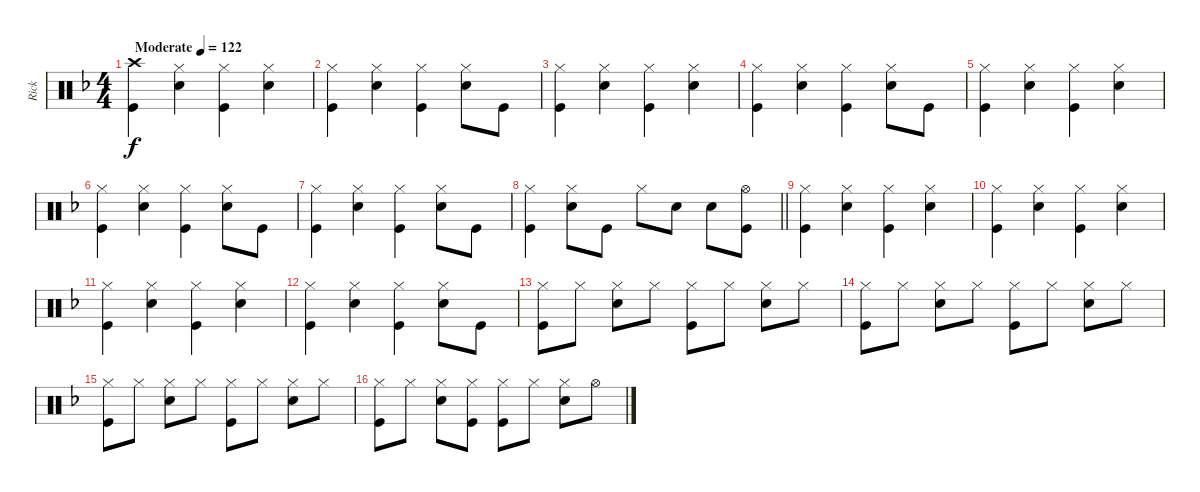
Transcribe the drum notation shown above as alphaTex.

\track ("Rick" "Rick") {instrument percussion}
\staff {score}
\articulation defaults
\ts (4 4)
\tempo (122 "Moderate")
\clef neutral
\ks f
("Crash high (hit)" "Kick (hit)").4{dy f} ("Hi-Hat (closed)" "Snare (hit) 2").4 ("Hi-Hat (closed)" "Kick (hit)").4 ("Hi-Hat (closed)" "Snare (hit) 2").4 |
("Hi-Hat (closed)" "Kick (hit)").4 ("Hi-Hat (closed)" "Snare (hit) 2").4 ("Hi-Hat (closed)" "Kick (hit)").4 ("Hi-Hat (closed)" "Snare (hit) 2").8 "Kick (hit)".8 |
("Hi-Hat (closed)" "Kick (hit)").4 ("Hi-Hat (closed)" "Snare (hit) 2").4 ("Hi-Hat (closed)" "Kick (hit)").4 ("Hi-Hat (closed)" "Snare (hit) 2").4 |
("Hi-Hat (closed)" "Kick (hit)").4 ("Hi-Hat (closed)" "Snare (hit) 2").4 ("Hi-Hat (closed)" "Kick (hit)").4 ("Hi-Hat (closed)" "Snare (hit) 2").8 "Kick (hit)".8 |
("Hi-Hat (closed)" "Kick (hit)").4 ("Hi-Hat (closed)" "Snare (hit) 2").4 ("Hi-Hat (closed)" "Kick (hit)").4 ("Hi-Hat (closed)" "Snare (hit) 2").4 |
("Hi-Hat (closed)" "Kick (hit)").4 ("Hi-Hat (closed)" "Snare (hit) 2").4 ("Hi-Hat (closed)" "Kick (hit)").4 ("Hi-Hat (closed)" "Snare (hit) 2").8 "Kick (hit)".8 |
("Hi-Hat (closed)" "Kick (hit)").4 ("Hi-Hat (closed)" "Snare (hit) 2").4 ("Hi-Hat (closed)" "Kick (hit)").4 ("Hi-Hat (closed)" "Snare (hit) 2").8 "Kick (hit)".8 |
\barLineRight lightlight
("Hi-Hat (closed)" "Kick (hit)").4 ("Hi-Hat (closed)" "Snare (hit) 2").8 "Kick (hit)".8 "Hi-Hat (closed)".8 "Snare (hit) 2".8 "Snare (hit) 2".8 ("Hi-Hat (open)" "Kick (hit)").8 |
("Hi-Hat (closed)" "Kick (hit)").4 ("Hi-Hat (closed)" "Snare (hit) 2").4 ("Hi-Hat (closed)" "Kick (hit)").4 ("Hi-Hat (closed)" "Snare (hit) 2").4 |
("Hi-Hat (closed)" "Kick (hit)").4 ("Hi-Hat (closed)" "Snare (hit) 2").4 ("Hi-Hat (closed)" "Kick (hit)").4 ("Hi-Hat (closed)" "Snare (hit) 2").4 |
("Hi-Hat (closed)" "Kick (hit)").4 ("Hi-Hat (closed)" "Snare (hit) 2").4 ("Hi-Hat (closed)" "Kick (hit)").4 ("Hi-Hat (closed)" "Snare (hit) 2").4 |
("Hi-Hat (closed)" "Kick (hit)").4 ("Hi-Hat (closed)" "Snare (hit) 2").4 ("Hi-Hat (closed)" "Kick (hit)").4 ("Hi-Hat (closed)" "Snare (hit) 2").8 "Kick (hit)".8 |
("Hi-Hat (closed)" "Kick (hit)").8 "Hi-Hat (closed)".8 ("Hi-Hat (closed)" "Snare (hit) 2").8 "Hi-Hat (closed)".8 ("Hi-Hat (closed)" "Kick (hit)").8 "Hi-Hat (closed)".8 ("Hi-Hat (closed)" "Snare (hit) 2").8 "Hi-Hat (closed)".8 |
("Hi-Hat (closed)" "Kick (hit)").8 "Hi-Hat (closed)".8 ("Hi-Hat (closed)" "Snare (hit) 2").8 "Hi-Hat (closed)".8 ("Hi-Hat (closed)" "Kick (hit)").8 "Hi-Hat (closed)".8 ("Hi-Hat (closed)" "Snare (hit) 2").8 "Hi-Hat (closed)".8 |
("Hi-Hat (closed)" "Kick (hit)").8 "Hi-Hat (closed)".8 ("Hi-Hat (closed)" "Snare (hit) 2").8 "Hi-Hat (closed)".8 ("Hi-Hat (closed)" "Kick (hit)").8 "Hi-Hat (closed)".8 ("Hi-Hat (closed)" "Snare (hit) 2").8 "Hi-Hat (closed)".8 |
("Hi-Hat (closed)" "Kick (hit)").8 "Hi-Hat (closed)".8 ("Hi-Hat (closed)" "Snare (hit) 2").8 ("Hi-Hat (closed)" "Kick (hit)").8 ("Hi-Hat (closed)" "Kick (hit)").8 "Hi-Hat (closed)".8 ("Hi-Hat (closed)" "Snare (hit) 2").8 "Hi-Hat (open)".8
